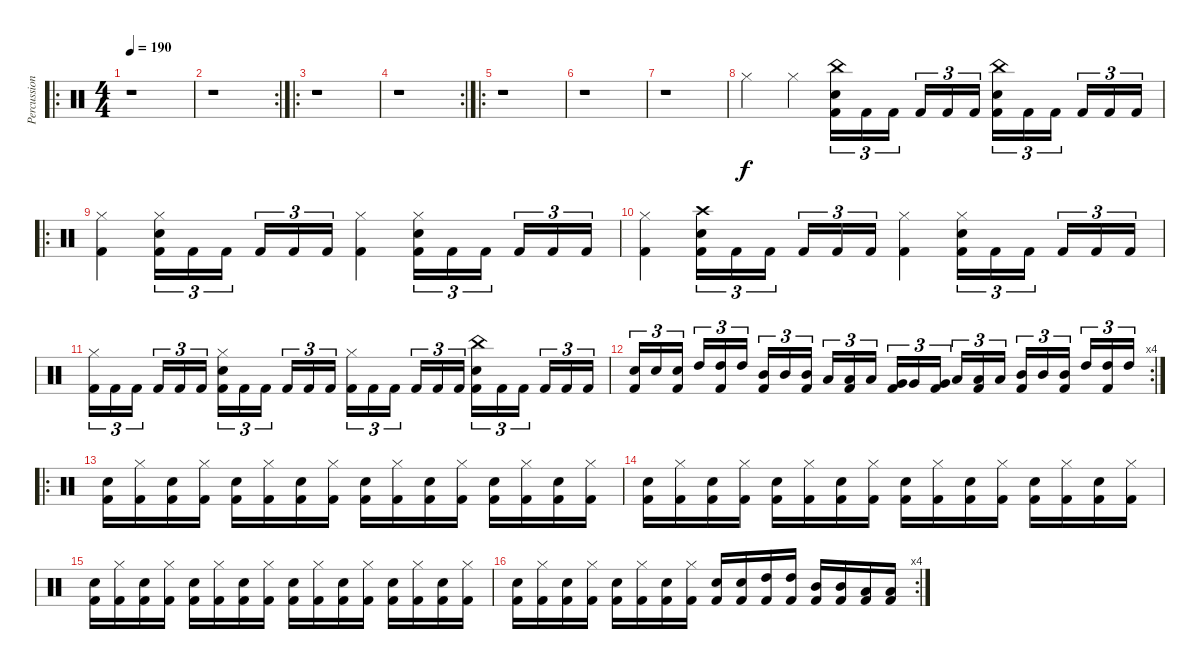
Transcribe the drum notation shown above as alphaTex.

\track ("Percussion" "Percussion") {instrument percussion}
\staff {score}
\articulation defaults
\ro
\ts (4 4)
\tempo 190
\clef neutral
\ks c
r.1{dy f} |
\rc 2
r.1 |
\ro
r.1 |
\rc 2
r.1 |
\ro
r.1 |
r.1 |
r.1 |
"Hi-Hat (closed)".4 "Hi-Hat (closed)".4 ("China (hit)" "Snare (hit) 2" "Kick (hit) 2").16{tu (3 2)} "Kick (hit) 2".16{tu (3 2)} "Kick (hit) 2".16{tu (3 2)} "Kick (hit) 2".16{tu (3 2)} "Kick (hit) 2".16{tu (3 2)} "Kick (hit) 2".16{tu (3 2)} ("China (hit)" "Snare (hit) 2" "Kick (hit) 2").16{tu (3 2)} "Kick (hit) 2".16{tu (3 2)} "Kick (hit) 2".16{tu (3 2)} "Kick (hit) 2".16{tu (3 2)} "Kick (hit) 2".16{tu (3 2)} "Kick (hit) 2".16{tu (3 2)} |
\ro
("Hi-Hat (closed)" "Kick (hit) 2").4 ("Hi-Hat (closed)" "Snare (hit) 2" "Kick (hit) 2").16{tu (3 2)} "Kick (hit) 2".16{tu (3 2)} "Kick (hit) 2".16{tu (3 2)} "Kick (hit) 2".16{tu (3 2)} "Kick (hit) 2".16{tu (3 2)} "Kick (hit) 2".16{tu (3 2)} ("Hi-Hat (closed)" "Kick (hit) 2").4 ("Hi-Hat (closed)" "Snare (hit) 2" "Kick (hit) 2").16{tu (3 2)} "Kick (hit) 2".16{tu (3 2)} "Kick (hit) 2".16{tu (3 2)} "Kick (hit) 2".16{tu (3 2)} "Kick (hit) 2".16{tu (3 2)} "Kick (hit) 2".16{tu (3 2)} |
("Hi-Hat (closed)" "Kick (hit) 2").4 ("Crash high (hit)" "Snare (hit) 2" "Kick (hit) 2").16{tu (3 2)} "Kick (hit) 2".16{tu (3 2)} "Kick (hit) 2".16{tu (3 2)} "Kick (hit) 2".16{tu (3 2)} "Kick (hit) 2".16{tu (3 2)} "Kick (hit) 2".16{tu (3 2)} ("Hi-Hat (closed)" "Kick (hit) 2").4 ("Hi-Hat (closed)" "Snare (hit) 2" "Kick (hit) 2").16{tu (3 2)} "Kick (hit) 2".16{tu (3 2)} "Kick (hit) 2".16{tu (3 2)} "Kick (hit) 2".16{tu (3 2)} "Kick (hit) 2".16{tu (3 2)} "Kick (hit) 2".16{tu (3 2)} |
("Hi-Hat (closed)" "Kick (hit) 2").16{tu (3 2)} "Kick (hit) 2".16{tu (3 2)} "Kick (hit) 2".16{tu (3 2)} "Kick (hit) 2".16{tu (3 2)} "Kick (hit) 2".16{tu (3 2)} "Kick (hit) 2".16{tu (3 2)} ("Hi-Hat (closed)" "Snare (hit) 2" "Kick (hit) 2").16{tu (3 2)} "Kick (hit) 2".16{tu (3 2)} "Kick (hit) 2".16{tu (3 2)} "Kick (hit) 2".16{tu (3 2)} "Kick (hit) 2".16{tu (3 2)} "Kick (hit) 2".16{tu (3 2)} ("Hi-Hat (closed)" "Kick (hit) 2").16{tu (3 2)} "Kick (hit) 2".16{tu (3 2)} "Kick (hit) 2".16{tu (3 2)} "Kick (hit) 2".16{tu (3 2)} "Kick (hit) 2".16{tu (3 2)} "Kick (hit) 2".16{tu (3 2)} ("China (hit)" "Snare (hit) 2" "Kick (hit) 2").16{tu (3 2)} "Kick (hit) 2".16{tu (3 2)} "Kick (hit) 2".16{tu (3 2)} "Kick (hit) 2".16{tu (3 2)} "Kick (hit) 2".16{tu (3 2)} "Kick (hit) 2".16{tu (3 2)} |
\rc 4
("Snare (hit) 2" "Kick (hit) 2").16{tu (3 2)} "Snare (hit) 2".16{tu (3 2)} ("Snare (hit) 2" "Kick (hit) 2").16{tu (3 2)} "High Tom (hit)".16{tu (3 2)} ("High Tom (hit)" "Kick (hit) 2").16{tu (3 2)} "High Tom (hit)".16{tu (3 2)} ("Mid Tom (hit)" "Kick (hit) 2").16{tu (3 2)} "Mid Tom (hit)".16{tu (3 2)} ("Mid Tom (hit)" "Kick (hit) 2").16{tu (3 2)} "Low Tom (hit)".16{tu (3 2)} ("Low Tom (hit)" "Kick (hit) 2").16{tu (3 2)} "Low Tom (hit)".16{tu (3 2)} ("Very Low Tom (hit)" "Kick (hit) 2").16{tu (3 2)} "Very Low Tom (hit)".16{tu (3 2)} ("Very Low Tom (hit)" "Kick (hit) 2").16{tu (3 2)} "Low Tom (hit)".16{tu (3 2)} ("Low Tom (hit)" "Kick (hit) 2").16{tu (3 2)} "Low Tom (hit)".16{tu (3 2)} ("Mid Tom (hit)" "Kick (hit) 2").16{tu (3 2)} "Mid Tom (hit)".16{tu (3 2)} ("Mid Tom (hit)" "Kick (hit) 2").16{tu (3 2)} "High Tom (hit)".16{tu (3 2)} ("High Tom (hit)" "Kick (hit) 2").16{tu (3 2)} "High Tom (hit)".16{tu (3 2)} |
\ro
("Snare (hit) 2" "Kick (hit) 2").16 ("Hi-Hat (closed)" "Kick (hit) 2").16 ("Snare (hit) 2" "Kick (hit) 2").16 ("Hi-Hat (closed)" "Kick (hit) 2").16 ("Snare (hit) 2" "Kick (hit) 2").16 ("Hi-Hat (closed)" "Kick (hit) 2").16 ("Snare (hit) 2" "Kick (hit) 2").16 ("Hi-Hat (closed)" "Kick (hit) 2").16 ("Snare (hit) 2" "Kick (hit) 2").16 ("Hi-Hat (closed)" "Kick (hit) 2").16 ("Snare (hit) 2" "Kick (hit) 2").16 ("Hi-Hat (closed)" "Kick (hit) 2").16 ("Snare (hit) 2" "Kick (hit) 2").16 ("Hi-Hat (closed)" "Kick (hit) 2").16 ("Snare (hit) 2" "Kick (hit) 2").16 ("Hi-Hat (closed)" "Kick (hit) 2").16 |
("Snare (hit) 2" "Kick (hit) 2").16 ("Hi-Hat (closed)" "Kick (hit) 2").16 ("Snare (hit) 2" "Kick (hit) 2").16 ("Hi-Hat (closed)" "Kick (hit) 2").16 ("Snare (hit) 2" "Kick (hit) 2").16 ("Hi-Hat (closed)" "Kick (hit) 2").16 ("Snare (hit) 2" "Kick (hit) 2").16 ("Hi-Hat (closed)" "Kick (hit) 2").16 ("Snare (hit) 2" "Kick (hit) 2").16 ("Hi-Hat (closed)" "Kick (hit) 2").16 ("Snare (hit) 2" "Kick (hit) 2").16 ("Hi-Hat (closed)" "Kick (hit) 2").16 ("Snare (hit) 2" "Kick (hit) 2").16 ("Hi-Hat (closed)" "Kick (hit) 2").16 ("Snare (hit) 2" "Kick (hit) 2").16 ("Hi-Hat (closed)" "Kick (hit) 2").16 |
("Snare (hit) 2" "Kick (hit) 2").16 ("Hi-Hat (closed)" "Kick (hit) 2").16 ("Snare (hit) 2" "Kick (hit) 2").16 ("Hi-Hat (closed)" "Kick (hit) 2").16 ("Snare (hit) 2" "Kick (hit) 2").16 ("Hi-Hat (closed)" "Kick (hit) 2").16 ("Snare (hit) 2" "Kick (hit) 2").16 ("Hi-Hat (closed)" "Kick (hit) 2").16 ("Snare (hit) 2" "Kick (hit) 2").16 ("Hi-Hat (closed)" "Kick (hit) 2").16 ("Snare (hit) 2" "Kick (hit) 2").16 ("Hi-Hat (closed)" "Kick (hit) 2").16 ("Snare (hit) 2" "Kick (hit) 2").16 ("Hi-Hat (closed)" "Kick (hit) 2").16 ("Snare (hit) 2" "Kick (hit) 2").16 ("Hi-Hat (closed)" "Kick (hit) 2").16 |
\rc 4
("Snare (hit) 2" "Kick (hit) 2").16 ("Hi-Hat (closed)" "Kick (hit) 2").16 ("Snare (hit) 2" "Kick (hit) 2").16 ("Hi-Hat (closed)" "Kick (hit) 2").16 ("Snare (hit) 2" "Kick (hit) 2").16 ("Hi-Hat (closed)" "Kick (hit) 2").16 ("Snare (hit) 2" "Kick (hit) 2").16 ("Hi-Hat (closed)" "Kick (hit) 2").16 ("Snare (hit) 2" "Kick (hit) 2").16 ("Snare (hit) 2" "Kick (hit) 2").16 ("High Tom (hit)" "Kick (hit) 2").16 ("High Tom (hit)" "Kick (hit) 2").16 ("Mid Tom (hit)" "Kick (hit) 2").16 ("Mid Tom (hit)" "Kick (hit) 2").16 ("Low Tom (hit)" "Kick (hit) 2").16 ("Low Tom (hit)" "Kick (hit) 2").16
